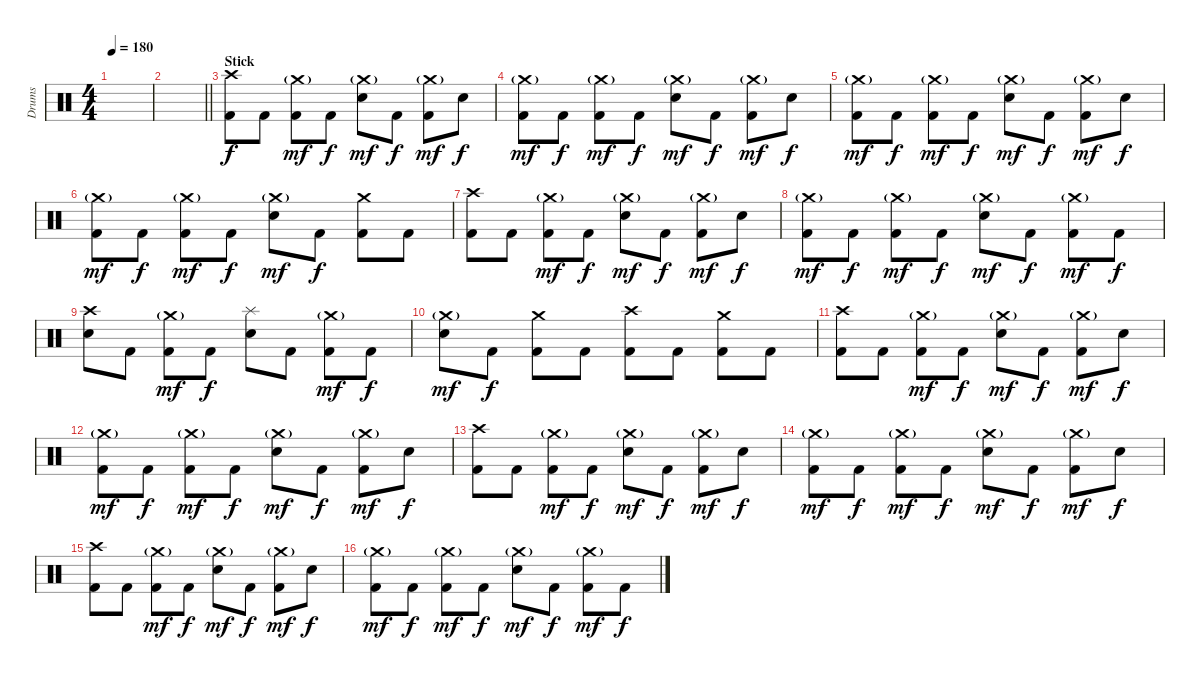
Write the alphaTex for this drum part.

\track ("Drums" "Drums") {instrument percussion}
\staff {score}
\articulation defaults
\ts (4 4)
\tempo 180
\clef neutral
\ks c
|
\barLineRight lightlight
|
\section ("" "Stick")
("Crash high (hit)" "Kick (hit) 2").8 "Kick (hit) 2".8 ("Crash medium (hit)"{g} "Kick (hit) 2").8{dy mf} "Kick (hit) 2".8{dy f} ("Crash medium (hit)"{g} "Electric Snare (hit)").8{dy mf} "Kick (hit) 2".8{dy f} ("Crash medium (hit)"{g} "Kick (hit) 2").8{dy mf} "Electric Snare (hit)".8{dy f} |
("Crash medium (hit)"{g} "Kick (hit) 2").8{dy mf} "Kick (hit) 2".8{dy f} ("Crash medium (hit)"{g} "Kick (hit) 2").8{dy mf} "Kick (hit) 2".8{dy f} ("Crash medium (hit)"{g} "Electric Snare (hit)").8{dy mf} "Kick (hit) 2".8{dy f} ("Crash medium (hit)"{g} "Kick (hit) 2").8{dy mf} "Electric Snare (hit)".8{dy f} |
("Crash medium (hit)"{g} "Kick (hit) 2").8{dy mf} "Kick (hit) 2".8{dy f} ("Crash medium (hit)"{g} "Kick (hit) 2").8{dy mf} "Kick (hit) 2".8{dy f} ("Crash medium (hit)"{g} "Electric Snare (hit)").8{dy mf} "Kick (hit) 2".8{dy f} ("Crash medium (hit)"{g} "Kick (hit) 2").8{dy mf} "Electric Snare (hit)".8{dy f} |
("Crash medium (hit)"{g} "Kick (hit) 2").8{dy mf} "Kick (hit) 2".8{dy f} ("Crash medium (hit)"{g} "Kick (hit) 2").8{dy mf} "Kick (hit) 2".8{dy f} ("Crash medium (hit)"{g} "Electric Snare (hit)").8{dy mf} "Kick (hit) 2".8{dy f} ("Crash medium (hit)" "Kick (hit) 2").8 "Kick (hit) 2".8 |
("Crash high (hit)" "Kick (hit) 2").8 "Kick (hit) 2".8 ("Crash medium (hit)"{g} "Kick (hit) 2").8{dy mf} "Kick (hit) 2".8{dy f} ("Crash medium (hit)"{g} "Electric Snare (hit)").8{dy mf} "Kick (hit) 2".8{dy f} ("Crash medium (hit)"{g} "Kick (hit) 2").8{dy mf} "Electric Snare (hit)".8{dy f} |
("Crash medium (hit)"{g} "Kick (hit) 2").8{dy mf} "Kick (hit) 2".8{dy f} ("Crash medium (hit)"{g} "Kick (hit) 2").8{dy mf} "Kick (hit) 2".8{dy f} ("Crash medium (hit)"{g} "Electric Snare (hit)").8{dy mf} "Kick (hit) 2".8{dy f} ("Crash medium (hit)"{g} "Kick (hit) 2").8{dy mf} "Kick (hit) 2".8{dy f} |
("Crash high (hit)" "Electric Snare (hit)").8 "Kick (hit) 2".8 ("Crash medium (hit)"{g} "Kick (hit) 2").8{dy mf} "Kick (hit) 2".8{dy f} ("Splash (hit)" "Electric Snare (hit)").8 "Kick (hit) 2".8 ("Crash medium (hit)"{g} "Kick (hit) 2").8{dy mf} "Kick (hit) 2".8{dy f} |
("Crash medium (hit)"{g} "Electric Snare (hit)").8{dy mf} "Kick (hit) 2".8{dy f} ("Crash medium (hit)" "Kick (hit) 2").8 "Kick (hit) 2".8 ("Crash high (hit)" "Kick (hit) 2").8 "Kick (hit) 2".8 ("Crash medium (hit)" "Kick (hit) 2").8 "Kick (hit) 2".8 |
("Crash high (hit)" "Kick (hit) 2").8 "Kick (hit) 2".8 ("Crash medium (hit)"{g} "Kick (hit) 2").8{dy mf} "Kick (hit) 2".8{dy f} ("Crash medium (hit)"{g} "Electric Snare (hit)").8{dy mf} "Kick (hit) 2".8{dy f} ("Crash medium (hit)"{g} "Kick (hit) 2").8{dy mf} "Electric Snare (hit)".8{dy f} |
("Crash medium (hit)"{g} "Kick (hit) 2").8{dy mf} "Kick (hit) 2".8{dy f} ("Crash medium (hit)"{g} "Kick (hit) 2").8{dy mf} "Kick (hit) 2".8{dy f} ("Crash medium (hit)"{g} "Electric Snare (hit)").8{dy mf} "Kick (hit) 2".8{dy f} ("Crash medium (hit)"{g} "Kick (hit) 2").8{dy mf} "Electric Snare (hit)".8{dy f} |
("Crash high (hit)" "Kick (hit) 2").8 "Kick (hit) 2".8 ("Crash medium (hit)"{g} "Kick (hit) 2").8{dy mf} "Kick (hit) 2".8{dy f} ("Crash medium (hit)"{g} "Electric Snare (hit)").8{dy mf} "Kick (hit) 2".8{dy f} ("Crash medium (hit)"{g} "Kick (hit) 2").8{dy mf} "Electric Snare (hit)".8{dy f} |
("Crash medium (hit)"{g} "Kick (hit) 2").8{dy mf} "Kick (hit) 2".8{dy f} ("Crash medium (hit)"{g} "Kick (hit) 2").8{dy mf} "Kick (hit) 2".8{dy f} ("Crash medium (hit)"{g} "Electric Snare (hit)").8{dy mf} "Kick (hit) 2".8{dy f} ("Crash medium (hit)"{g} "Kick (hit) 2").8{dy mf} "Electric Snare (hit)".8{dy f} |
("Crash high (hit)" "Kick (hit) 2").8 "Kick (hit) 2".8 ("Crash medium (hit)"{g} "Kick (hit) 2").8{dy mf} "Kick (hit) 2".8{dy f} ("Crash medium (hit)"{g} "Electric Snare (hit)").8{dy mf} "Kick (hit) 2".8{dy f} ("Crash medium (hit)"{g} "Kick (hit) 2").8{dy mf} "Electric Snare (hit)".8{dy f} |
("Crash medium (hit)"{g} "Kick (hit) 2").8{dy mf} "Kick (hit) 2".8{dy f} ("Crash medium (hit)"{g} "Kick (hit) 2").8{dy mf} "Kick (hit) 2".8{dy f} ("Crash medium (hit)"{g} "Electric Snare (hit)").8{dy mf} "Kick (hit) 2".8{dy f} ("Crash medium (hit)"{g} "Kick (hit) 2").8{dy mf} "Kick (hit) 2".8{dy f}
